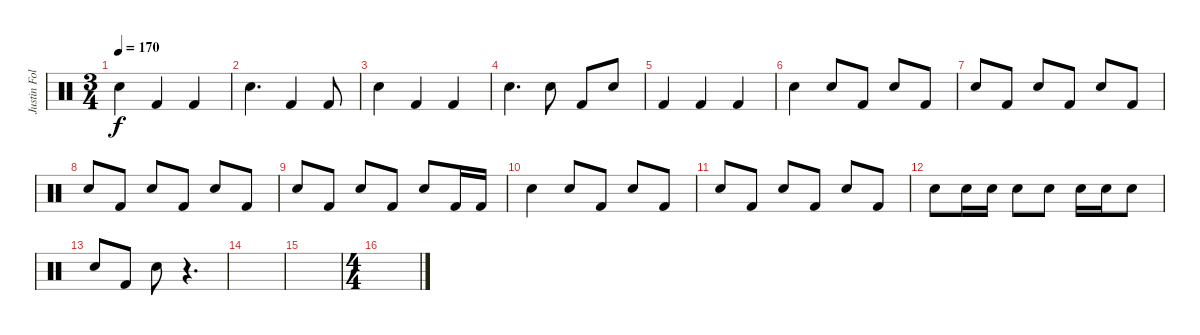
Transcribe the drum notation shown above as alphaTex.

\track ("Justin Foley" "Justin Fol") {instrument percussion}
\staff {score}
\articulation defaults
\ts (3 4)
\tempo 170
\clef neutral
\ks c "Snare (hit) 2".4{dy f} "Kick (hit) 2".4 "Kick (hit) 2".4
|
"Snare (hit) 2".4{d} "Kick (hit) 2".4 "Kick (hit) 2".8 |
"Snare (hit) 2".4 "Kick (hit) 2".4 "Kick (hit) 2".4 |
"Snare (hit) 2".4{d} "Snare (hit) 2".8 "Kick (hit) 2".8 "Snare (hit) 2".8 |
"Kick (hit) 2".4 "Kick (hit) 2".4 "Kick (hit) 2".4 |
"Snare (hit) 2".4 "Snare (hit) 2".8 "Kick (hit) 2".8 "Snare (hit) 2".8 "Kick (hit) 2".8 |
"Snare (hit) 2".8 "Kick (hit) 2".8 "Snare (hit) 2".8 "Kick (hit) 2".8 "Snare (hit) 2".8 "Kick (hit) 2".8 |
"Snare (hit) 2".8 "Kick (hit) 2".8 "Snare (hit) 2".8 "Kick (hit) 2".8 "Snare (hit) 2".8 "Kick (hit) 2".8 |
"Snare (hit) 2".8 "Kick (hit) 2".8 "Snare (hit) 2".8 "Kick (hit) 2".8 "Snare (hit) 2".8 "Kick (hit) 2".16 "Kick (hit) 2".16 |
"Snare (hit) 2".4 "Snare (hit) 2".8 "Kick (hit) 2".8 "Snare (hit) 2".8 "Kick (hit) 2".8 |
"Snare (hit) 2".8 "Kick (hit) 2".8 "Snare (hit) 2".8 "Kick (hit) 2".8 "Snare (hit) 2".8 "Kick (hit) 2".8 |
"Snare (hit) 2".8 "Snare (hit) 2".16 "Snare (hit) 2".16 "Snare (hit) 2".8 "Snare (hit) 2".8 "Snare (hit) 2".16 "Snare (hit) 2".16 "Snare (hit) 2".8 |
"Snare (hit) 2".8 "Kick (hit) 2".8 "Snare (hit) 2".8 r.4{d} |
|
|
\ts (4 4)
